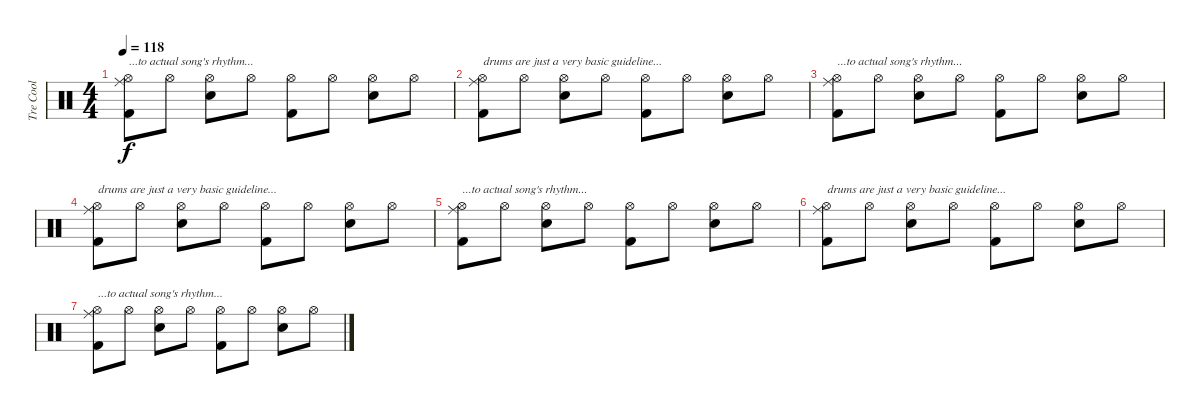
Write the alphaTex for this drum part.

\track ("Tre Cool" "Tre Cool") {instrument percussion}
\staff {score}
\articulation defaults
\ts (4 4)
\tempo 118
\clef neutral
\ks c
("Hi-Hat (open)" "Ride (middle)" "Kick (hit) 2").8{txt "...to actual song's rhythm..." dy f} "Hi-Hat (open)".8 ("Hi-Hat (open)" "Snare (hit) 2").8 "Hi-Hat (open)".8 ("Hi-Hat (open)" "Kick (hit) 2").8 "Hi-Hat (open)".8 ("Hi-Hat (open)" "Snare (hit) 2").8 "Hi-Hat (open)".8 |
("Hi-Hat (open)" "Ride (middle)" "Kick (hit) 2").8{txt "drums are just a very basic guideline..."} "Hi-Hat (open)".8 ("Hi-Hat (open)" "Snare (hit) 2").8 "Hi-Hat (open)".8 ("Hi-Hat (open)" "Kick (hit) 2").8 "Hi-Hat (open)".8 ("Hi-Hat (open)" "Snare (hit) 2").8 "Hi-Hat (open)".8 |
("Hi-Hat (open)" "Ride (middle)" "Kick (hit) 2").8{txt "...to actual song's rhythm..."} "Hi-Hat (open)".8 ("Hi-Hat (open)" "Snare (hit) 2").8 "Hi-Hat (open)".8 ("Hi-Hat (open)" "Kick (hit) 2").8 "Hi-Hat (open)".8 ("Hi-Hat (open)" "Snare (hit) 2").8 "Hi-Hat (open)".8 |
("Hi-Hat (open)" "Ride (middle)" "Kick (hit) 2").8{txt "drums are just a very basic guideline..."} "Hi-Hat (open)".8 ("Hi-Hat (open)" "Snare (hit) 2").8 "Hi-Hat (open)".8 ("Hi-Hat (open)" "Kick (hit) 2").8 "Hi-Hat (open)".8 ("Hi-Hat (open)" "Snare (hit) 2").8 "Hi-Hat (open)".8 |
("Hi-Hat (open)" "Ride (middle)" "Kick (hit) 2").8{txt "...to actual song's rhythm..."} "Hi-Hat (open)".8 ("Hi-Hat (open)" "Snare (hit) 2").8 "Hi-Hat (open)".8 ("Hi-Hat (open)" "Kick (hit) 2").8 "Hi-Hat (open)".8 ("Hi-Hat (open)" "Snare (hit) 2").8 "Hi-Hat (open)".8 |
("Hi-Hat (open)" "Ride (middle)" "Kick (hit) 2").8{txt "drums are just a very basic guideline..."} "Hi-Hat (open)".8 ("Hi-Hat (open)" "Snare (hit) 2").8 "Hi-Hat (open)".8 ("Hi-Hat (open)" "Kick (hit) 2").8 "Hi-Hat (open)".8 ("Hi-Hat (open)" "Snare (hit) 2").8 "Hi-Hat (open)".8 |
("Hi-Hat (open)" "Ride (middle)" "Kick (hit) 2").8{txt "...to actual song's rhythm..."} "Hi-Hat (open)".8 ("Hi-Hat (open)" "Snare (hit) 2").8 "Hi-Hat (open)".8 ("Hi-Hat (open)" "Kick (hit) 2").8 "Hi-Hat (open)".8 ("Hi-Hat (open)" "Snare (hit) 2").8 "Hi-Hat (open)".8
